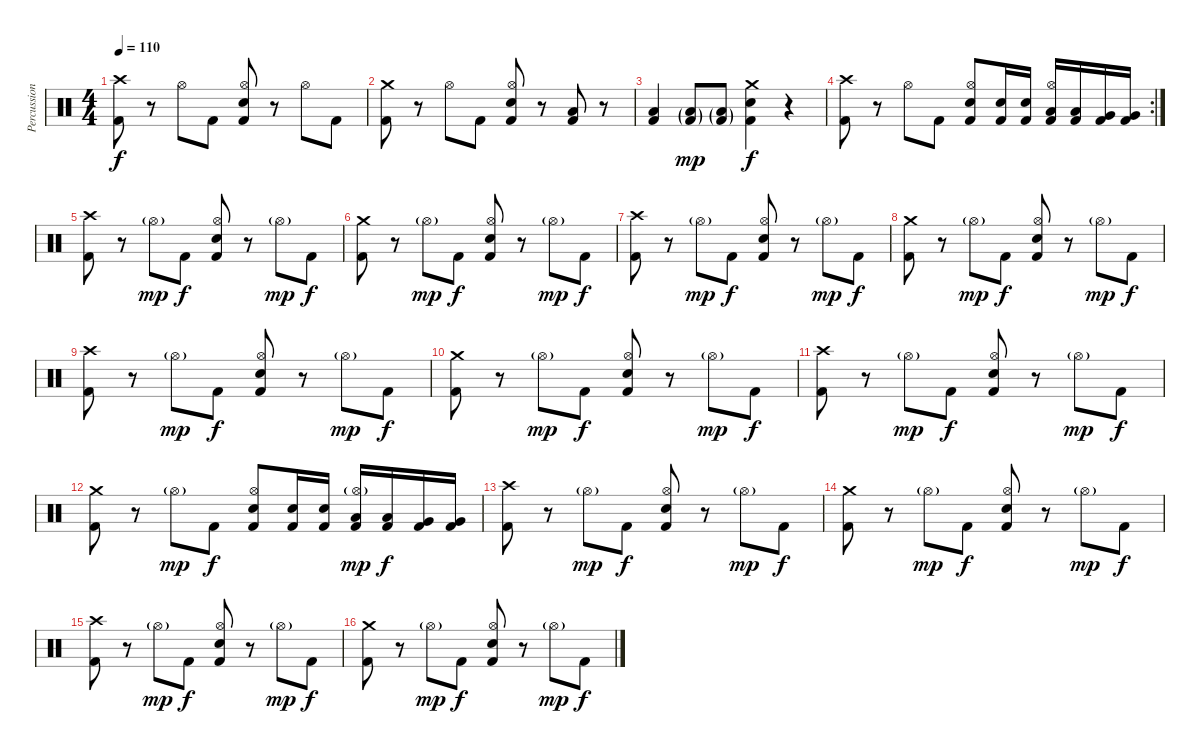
\track ("Percussion" "Percussion") {instrument percussion}
\staff {score}
\articulation defaults
\ts (4 4)
\tempo 110
\clef neutral
\ks c
("Crash high (hit)" "Kick (hit) 2").8{dy f} r.8 "Hi-Hat (open)".8 "Kick (hit) 2".8 ("Hi-Hat (open)" "Electric Snare (hit)" "Kick (hit) 2").8 r.8 "Hi-Hat (open)".8 "Kick (hit) 2".8 |
("Crash medium (hit)" "Kick (hit) 2").8 r.8 "Hi-Hat (open)".8 "Kick (hit) 2".8 ("Hi-Hat (open)" "Electric Snare (hit)" "Kick (hit) 2").8 r.8 ("Low Tom (hit)" "Kick (hit) 2").8 r.8 |
("Low Tom (hit)" "Kick (hit) 2").4 ("Low Tom (hit)"{g} "Kick (hit) 2"{g}).8{dy mp} ("Low Tom (hit)"{g} "Kick (hit) 2"{g}).8 ("Crash medium (hit)" "Electric Snare (hit)" "Kick (hit) 2").4{dy f} r.4 |
\rc 2
("Crash high (hit)" "Kick (hit) 2").8 r.8 "Hi-Hat (open)".8 "Kick (hit) 2".8 ("Hi-Hat (open)" "Electric Snare (hit)" "Kick (hit) 2").8 ("Electric Snare (hit)" "Kick (hit) 2").16 ("Electric Snare (hit)" "Kick (hit) 2").16 ("Hi-Hat (open)" "Low Tom (hit)" "Kick (hit) 2").16 ("Low Tom (hit)" "Kick (hit) 2").16 ("Very Low Tom (hit)" "Kick (hit) 2").16 ("Very Low Tom (hit)" "Kick (hit) 2").16 |
("Crash high (hit)" "Kick (hit) 2").8 r.8 "Hi-Hat (open)"{g}.8{dy mp} "Kick (hit) 2".8{dy f} ("Hi-Hat (open)" "Electric Snare (hit)" "Kick (hit) 2").8 r.8 "Hi-Hat (open)"{g}.8{dy mp} "Kick (hit) 2".8{dy f} |
("Crash medium (hit)" "Kick (hit) 2").8 r.8 "Hi-Hat (open)"{g}.8{dy mp} "Kick (hit) 2".8{dy f} ("Hi-Hat (open)" "Electric Snare (hit)" "Kick (hit) 2").8 r.8 "Hi-Hat (open)"{g}.8{dy mp} "Kick (hit) 2".8{dy f} |
("Crash high (hit)" "Kick (hit) 2").8 r.8 "Hi-Hat (open)"{g}.8{dy mp} "Kick (hit) 2".8{dy f} ("Hi-Hat (open)" "Electric Snare (hit)" "Kick (hit) 2").8 r.8 "Hi-Hat (open)"{g}.8{dy mp} "Kick (hit) 2".8{dy f} |
("Crash medium (hit)" "Kick (hit) 2").8 r.8 "Hi-Hat (open)"{g}.8{dy mp} "Kick (hit) 2".8{dy f} ("Hi-Hat (open)" "Electric Snare (hit)" "Kick (hit) 2").8 r.8 "Hi-Hat (open)"{g}.8{dy mp} "Kick (hit) 2".8{dy f} |
("Crash high (hit)" "Kick (hit) 2").8 r.8 "Hi-Hat (open)"{g}.8{dy mp} "Kick (hit) 2".8{dy f} ("Hi-Hat (open)" "Electric Snare (hit)" "Kick (hit) 2").8 r.8 "Hi-Hat (open)"{g}.8{dy mp} "Kick (hit) 2".8{dy f} |
("Crash medium (hit)" "Kick (hit) 2").8 r.8 "Hi-Hat (open)"{g}.8{dy mp} "Kick (hit) 2".8{dy f} ("Hi-Hat (open)" "Electric Snare (hit)" "Kick (hit) 2").8 r.8 "Hi-Hat (open)"{g}.8{dy mp} "Kick (hit) 2".8{dy f} |
("Crash high (hit)" "Kick (hit) 2").8 r.8 "Hi-Hat (open)"{g}.8{dy mp} "Kick (hit) 2".8{dy f} ("Hi-Hat (open)" "Electric Snare (hit)" "Kick (hit) 2").8 r.8 "Hi-Hat (open)"{g}.8{dy mp} "Kick (hit) 2".8{dy f} |
("Crash medium (hit)" "Kick (hit) 2").8 r.8 "Hi-Hat (open)"{g}.8{dy mp} "Kick (hit) 2".8{dy f} ("Hi-Hat (open)" "Electric Snare (hit)" "Kick (hit) 2").8 ("Electric Snare (hit)" "Kick (hit) 2").16 ("Electric Snare (hit)" "Kick (hit) 2").16 ("Hi-Hat (open)"{g} "Low Tom (hit)" "Kick (hit) 2").16{dy mp} ("Low Tom (hit)" "Kick (hit) 2").16{dy f} ("Very Low Tom (hit)" "Kick (hit) 2").16 ("Very Low Tom (hit)" "Kick (hit) 2").16 |
("Crash high (hit)" "Kick (hit) 2").8 r.8 "Hi-Hat (open)"{g}.8{dy mp} "Kick (hit) 2".8{dy f} ("Hi-Hat (open)" "Electric Snare (hit)" "Kick (hit) 2").8 r.8 "Hi-Hat (open)"{g}.8{dy mp} "Kick (hit) 2".8{dy f} |
("Crash medium (hit)" "Kick (hit) 2").8 r.8 "Hi-Hat (open)"{g}.8{dy mp} "Kick (hit) 2".8{dy f} ("Hi-Hat (open)" "Electric Snare (hit)" "Kick (hit) 2").8 r.8 "Hi-Hat (open)"{g}.8{dy mp} "Kick (hit) 2".8{dy f} |
("Crash high (hit)" "Kick (hit) 2").8 r.8 "Hi-Hat (open)"{g}.8{dy mp} "Kick (hit) 2".8{dy f} ("Hi-Hat (open)" "Electric Snare (hit)" "Kick (hit) 2").8 r.8 "Hi-Hat (open)"{g}.8{dy mp} "Kick (hit) 2".8{dy f} |
("Crash medium (hit)" "Kick (hit) 2").8 r.8 "Hi-Hat (open)"{g}.8{dy mp} "Kick (hit) 2".8{dy f} ("Hi-Hat (open)" "Electric Snare (hit)" "Kick (hit) 2").8 r.8 "Hi-Hat (open)"{g}.8{dy mp} "Kick (hit) 2".8{dy f}
